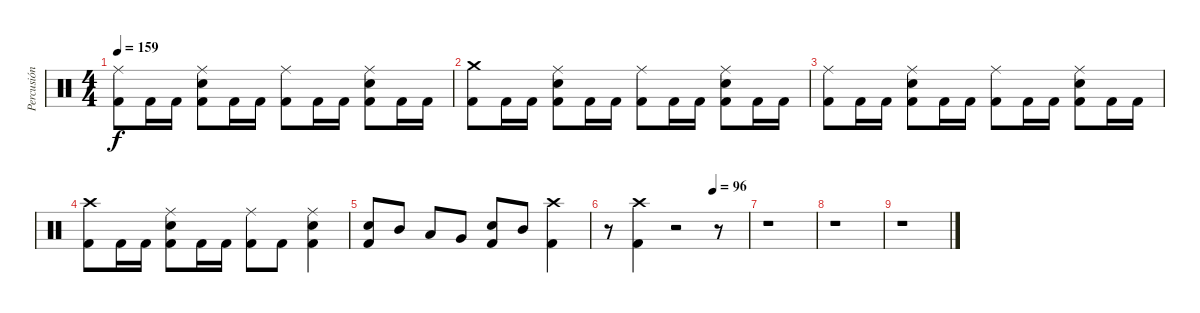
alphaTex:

\track ("Percusión" "Percusión") {instrument percussion}
\staff {score}
\articulation defaults
\ts (4 4)
\tempo 159
\clef neutral
\ks c
("Ride (middle)" "Kick (hit) 2").8{dy f} "Kick (hit) 2".16 "Kick (hit) 2".16 ("Ride (middle)" "Electric Snare (hit)" "Kick (hit) 2").8 "Kick (hit) 2".16 "Kick (hit) 2".16 ("Ride (middle)" "Kick (hit) 2").8 "Kick (hit) 2".16 "Kick (hit) 2".16 ("Ride (middle)" "Electric Snare (hit)" "Kick (hit) 2").8 "Kick (hit) 2".16 "Kick (hit) 2".16 |
("Crash medium (hit)" "Kick (hit) 2").8 "Kick (hit) 2".16 "Kick (hit) 2".16 ("Ride (middle)" "Electric Snare (hit)" "Kick (hit) 2").8 "Kick (hit) 2".16 "Kick (hit) 2".16 ("Ride (middle)" "Kick (hit) 2").8 "Kick (hit) 2".16 "Kick (hit) 2".16 ("Ride (middle)" "Electric Snare (hit)" "Kick (hit) 2").8 "Kick (hit) 2".16 "Kick (hit) 2".16 |
("Ride (middle)" "Kick (hit) 2").8 "Kick (hit) 2".16 "Kick (hit) 2".16 ("Ride (middle)" "Electric Snare (hit)" "Kick (hit) 2").8 "Kick (hit) 2".16 "Kick (hit) 2".16 ("Ride (middle)" "Kick (hit) 2").8 "Kick (hit) 2".16 "Kick (hit) 2".16 ("Ride (middle)" "Electric Snare (hit)" "Kick (hit) 2").8 "Kick (hit) 2".16 "Kick (hit) 2".16 |
("Crash high (hit)" "Kick (hit) 2").8 "Kick (hit) 2".16 "Kick (hit) 2".16 ("Ride (middle)" "Electric Snare (hit)" "Kick (hit) 2").8 "Kick (hit) 2".16 "Kick (hit) 2".16 ("Ride (middle)" "Kick (hit) 2").8 "Kick (hit) 2".8 ("Ride (middle)" "Electric Snare (hit)" "Kick (hit) 2").4 |
("Electric Snare (hit)" "Kick (hit) 2").8 "Mid Tom (hit)".8 "Low Tom (hit)".8 "Very Low Tom (hit)".8 ("Electric Snare (hit)" "Kick (hit) 2").8 "Mid Tom (hit)".8 ("Crash high (hit)" "Kick (hit) 2").4 |
\tempo (96 0.75)
r.8 ("Crash high (hit)" "Kick (hit) 2").4 r.2 r.8 |
r.1 |
r.1 |
r.1
